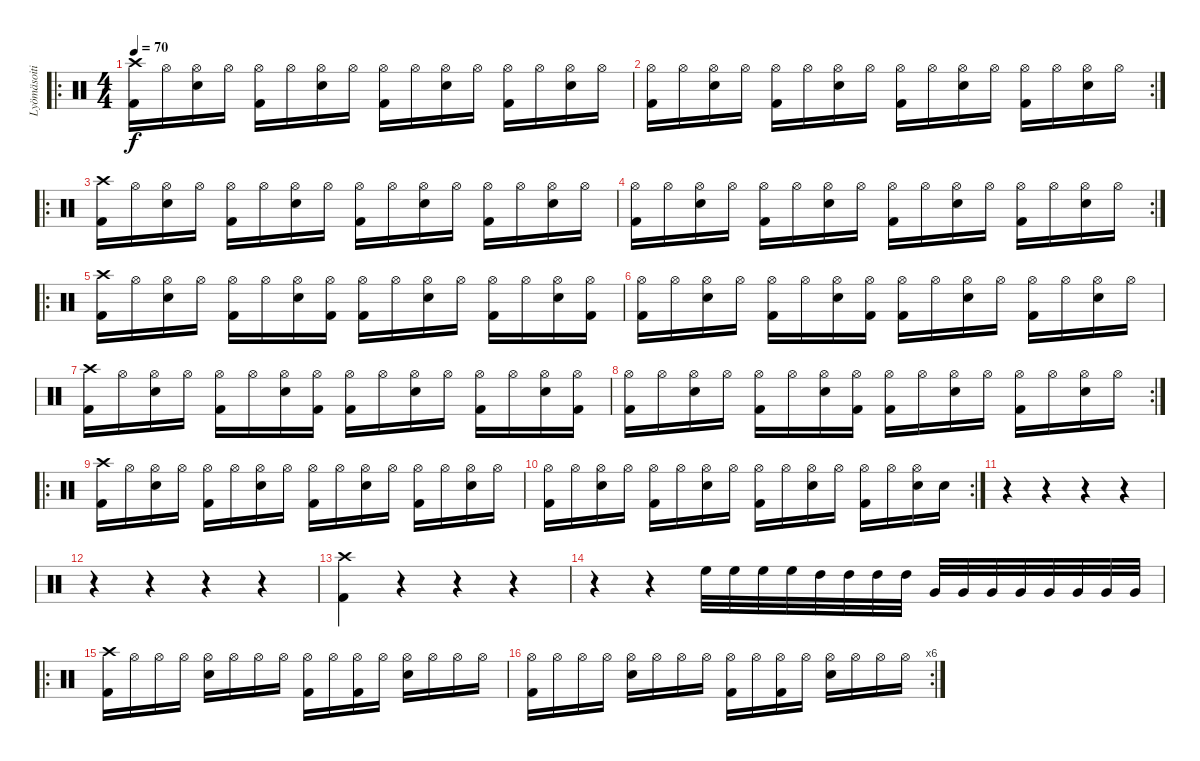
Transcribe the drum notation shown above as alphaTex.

\track ("Lyömäsoitin" "Lyömäsoiti") {instrument percussion}
\staff {score}
\articulation defaults
\ro
\ts (4 4)
\tempo 70
\clef neutral
\ks c
("Crash high (hit)" "Kick (hit) 2").16{dy f} "Hi-Hat (open)".16 ("Hi-Hat (open)" "Snare (hit) 2").16 "Hi-Hat (open)".16 ("Hi-Hat (open)" "Kick (hit) 2").16 "Hi-Hat (open)".16 ("Hi-Hat (open)" "Snare (hit) 2").16 "Hi-Hat (open)".16 ("Hi-Hat (open)" "Kick (hit) 2").16 "Hi-Hat (open)".16 ("Hi-Hat (open)" "Snare (hit) 2").16 "Hi-Hat (open)".16 ("Hi-Hat (open)" "Kick (hit) 2").16 "Hi-Hat (open)".16 ("Hi-Hat (open)" "Snare (hit) 2").16 "Hi-Hat (open)".16 |
\rc 2
("Hi-Hat (open)" "Kick (hit) 2").16 "Hi-Hat (open)".16 ("Hi-Hat (open)" "Snare (hit) 2").16 "Hi-Hat (open)".16 ("Hi-Hat (open)" "Kick (hit) 2").16 "Hi-Hat (open)".16 ("Hi-Hat (open)" "Snare (hit) 2").16 "Hi-Hat (open)".16 ("Hi-Hat (open)" "Kick (hit) 2").16 "Hi-Hat (open)".16 ("Hi-Hat (open)" "Snare (hit) 2").16 "Hi-Hat (open)".16 ("Hi-Hat (open)" "Kick (hit) 2").16 "Hi-Hat (open)".16 ("Hi-Hat (open)" "Snare (hit) 2").16 "Hi-Hat (open)".16 |
\ro
("Crash high (hit)" "Kick (hit) 2").16 "Hi-Hat (open)".16 ("Hi-Hat (open)" "Snare (hit) 2").16 "Hi-Hat (open)".16 ("Hi-Hat (open)" "Kick (hit) 2").16 "Hi-Hat (open)".16 ("Hi-Hat (open)" "Snare (hit) 2").16 "Hi-Hat (open)".16 ("Hi-Hat (open)" "Kick (hit) 2").16 "Hi-Hat (open)".16 ("Hi-Hat (open)" "Snare (hit) 2").16 "Hi-Hat (open)".16 ("Hi-Hat (open)" "Kick (hit) 2").16 "Hi-Hat (open)".16 ("Hi-Hat (open)" "Snare (hit) 2").16 "Hi-Hat (open)".16 |
\rc 2
("Hi-Hat (open)" "Kick (hit) 2").16 "Hi-Hat (open)".16 ("Hi-Hat (open)" "Snare (hit) 2").16 "Hi-Hat (open)".16 ("Hi-Hat (open)" "Kick (hit) 2").16 "Hi-Hat (open)".16 ("Hi-Hat (open)" "Snare (hit) 2").16 "Hi-Hat (open)".16 ("Hi-Hat (open)" "Kick (hit) 2").16 "Hi-Hat (open)".16 ("Hi-Hat (open)" "Snare (hit) 2").16 "Hi-Hat (open)".16 ("Hi-Hat (open)" "Kick (hit) 2").16 "Hi-Hat (open)".16 ("Hi-Hat (open)" "Snare (hit) 2").16 "Hi-Hat (open)".16 |
\ro
("Crash high (hit)" "Kick (hit) 2").16 "Hi-Hat (open)".16 ("Hi-Hat (open)" "Snare (hit) 2").16 "Hi-Hat (open)".16 ("Hi-Hat (open)" "Kick (hit) 2").16 "Hi-Hat (open)".16 ("Hi-Hat (open)" "Snare (hit) 2").16 ("Hi-Hat (open)" "Kick (hit) 2").16 ("Hi-Hat (open)" "Kick (hit) 2").16 "Hi-Hat (open)".16 ("Hi-Hat (open)" "Snare (hit) 2").16 "Hi-Hat (open)".16 ("Hi-Hat (open)" "Kick (hit) 2").16 "Hi-Hat (open)".16 ("Hi-Hat (open)" "Snare (hit) 2").16 ("Hi-Hat (open)" "Kick (hit) 2").16 |
("Hi-Hat (open)" "Kick (hit) 2").16 "Hi-Hat (open)".16 ("Hi-Hat (open)" "Snare (hit) 2").16 "Hi-Hat (open)".16 ("Hi-Hat (open)" "Kick (hit) 2").16 "Hi-Hat (open)".16 ("Hi-Hat (open)" "Snare (hit) 2").16 ("Hi-Hat (open)" "Kick (hit) 2").16 ("Hi-Hat (open)" "Kick (hit) 2").16 "Hi-Hat (open)".16 ("Hi-Hat (open)" "Snare (hit) 2").16 "Hi-Hat (open)".16 ("Hi-Hat (open)" "Kick (hit) 2").16 "Hi-Hat (open)".16 ("Hi-Hat (open)" "Snare (hit) 2").16 "Hi-Hat (open)".16 |
("Crash high (hit)" "Kick (hit) 2").16 "Hi-Hat (open)".16 ("Hi-Hat (open)" "Snare (hit) 2").16 "Hi-Hat (open)".16 ("Hi-Hat (open)" "Kick (hit) 2").16 "Hi-Hat (open)".16 ("Hi-Hat (open)" "Snare (hit) 2").16 ("Hi-Hat (open)" "Kick (hit) 2").16 ("Hi-Hat (open)" "Kick (hit) 2").16 "Hi-Hat (open)".16 ("Hi-Hat (open)" "Snare (hit) 2").16 "Hi-Hat (open)".16 ("Hi-Hat (open)" "Kick (hit) 2").16 "Hi-Hat (open)".16 ("Hi-Hat (open)" "Snare (hit) 2").16 ("Hi-Hat (open)" "Kick (hit) 2").16 |
\rc 2
("Hi-Hat (open)" "Kick (hit) 2").16 "Hi-Hat (open)".16 ("Hi-Hat (open)" "Snare (hit) 2").16 "Hi-Hat (open)".16 ("Hi-Hat (open)" "Kick (hit) 2").16 "Hi-Hat (open)".16 ("Hi-Hat (open)" "Snare (hit) 2").16 ("Hi-Hat (open)" "Kick (hit) 2").16 ("Hi-Hat (open)" "Kick (hit) 2").16 "Hi-Hat (open)".16 ("Hi-Hat (open)" "Snare (hit) 2").16 "Hi-Hat (open)".16 ("Hi-Hat (open)" "Kick (hit) 2").16 "Hi-Hat (open)".16 ("Hi-Hat (open)" "Snare (hit) 2").16 "Hi-Hat (open)".16 |
\ro
("Crash high (hit)" "Kick (hit) 2").16 "Hi-Hat (open)".16 ("Hi-Hat (open)" "Snare (hit) 2").16 "Hi-Hat (open)".16 ("Hi-Hat (open)" "Kick (hit) 2").16 "Hi-Hat (open)".16 ("Hi-Hat (open)" "Snare (hit) 2").16 "Hi-Hat (open)".16 ("Hi-Hat (open)" "Kick (hit) 2").16 "Hi-Hat (open)".16 ("Hi-Hat (open)" "Snare (hit) 2").16 "Hi-Hat (open)".16 ("Hi-Hat (open)" "Kick (hit) 2").16 "Hi-Hat (open)".16 ("Hi-Hat (open)" "Snare (hit) 2").16 "Hi-Hat (open)".16 |
\rc 2
("Hi-Hat (open)" "Kick (hit) 2").16 "Hi-Hat (open)".16 ("Hi-Hat (open)" "Snare (hit) 2").16 "Hi-Hat (open)".16 ("Hi-Hat (open)" "Kick (hit) 2").16 "Hi-Hat (open)".16 ("Hi-Hat (open)" "Snare (hit) 2").16 "Hi-Hat (open)".16 ("Hi-Hat (open)" "Kick (hit) 2").16 "Hi-Hat (open)".16 ("Hi-Hat (open)" "Snare (hit) 2").16 "Hi-Hat (open)".16 ("Hi-Hat (open)" "Kick (hit) 2").16 "Hi-Hat (open)".16 ("Hi-Hat (open)" "Snare (hit) 2").16 "Snare (hit) 2".16 |
r.4 r.4 r.4 r.4 |
r.4 r.4 r.4 r.4 |
("Crash high (hit)" "Kick (hit) 2").4 r.4 r.4 r.4 |
r.4 r.4 "High Floor Tom (hit)".32 "High Floor Tom (hit)".32 "High Floor Tom (hit)".32 "High Floor Tom (hit)".32 "High Tom (hit)".32 "High Tom (hit)".32 "High Tom (hit)".32 "High Tom (hit)".32 "Very Low Tom (hit)".32 "Very Low Tom (hit)".32 "Very Low Tom (hit)".32 "Very Low Tom (hit)".32 "Very Low Tom (hit)".32 "Very Low Tom (hit)".32 "Very Low Tom (hit)".32 "Very Low Tom (hit)".32 |
\ro
("Crash high (hit)" "Kick (hit) 2").16 "Hi-Hat (open)".16 "Hi-Hat (open)".16 "Hi-Hat (open)".16 ("Hi-Hat (open)" "Snare (hit) 2").16 "Hi-Hat (open)".16 "Hi-Hat (open)".16 "Hi-Hat (open)".16 ("Hi-Hat (open)" "Kick (hit) 2").16 "Hi-Hat (open)".16 ("Hi-Hat (open)" "Kick (hit) 2").16 "Hi-Hat (open)".16 ("Hi-Hat (open)" "Snare (hit) 2").16 "Hi-Hat (open)".16 "Hi-Hat (open)".16 "Hi-Hat (open)".16 |
\rc 6
("Hi-Hat (open)" "Kick (hit) 2").16 "Hi-Hat (open)".16 "Hi-Hat (open)".16 "Hi-Hat (open)".16 ("Hi-Hat (open)" "Snare (hit) 2").16 "Hi-Hat (open)".16 "Hi-Hat (open)".16 "Hi-Hat (open)".16 ("Hi-Hat (open)" "Kick (hit) 2").16 "Hi-Hat (open)".16 ("Hi-Hat (open)" "Kick (hit) 2").16 "Hi-Hat (open)".16 ("Hi-Hat (open)" "Snare (hit) 2").16 "Hi-Hat (open)".16 "Hi-Hat (open)".16 "Hi-Hat (open)".16
